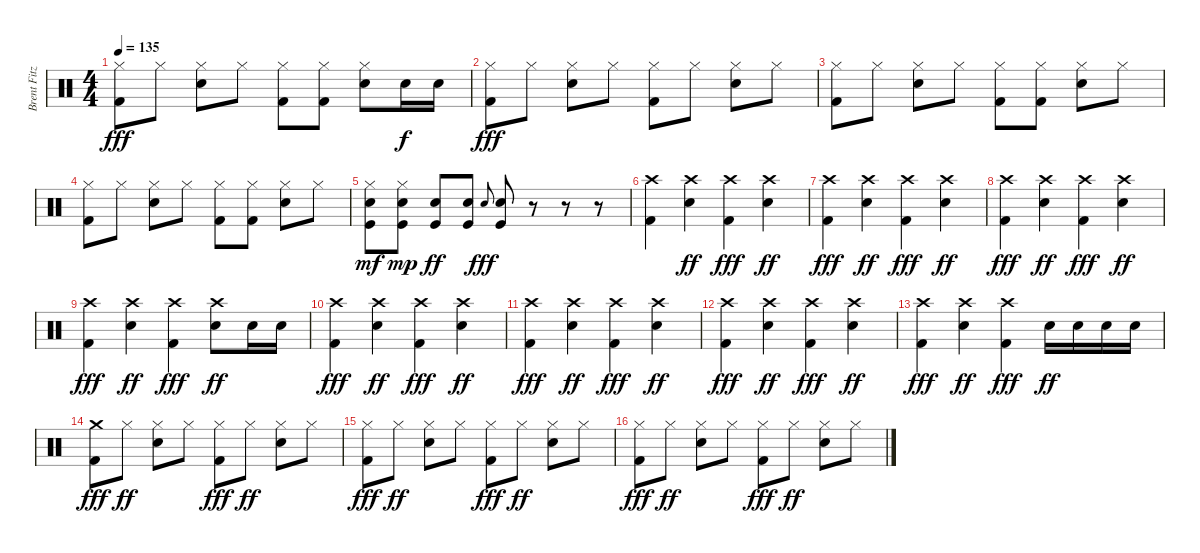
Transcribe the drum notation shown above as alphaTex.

\track ("Brent Fitz" "Brent Fitz") {instrument percussion}
\staff {score}
\articulation defaults
\ts (4 4)
\tempo 135
\clef neutral
\ks c
("Hi-Hat (closed)" "Kick (hit) 2").8{dy fff} "Hi-Hat (closed)".8 ("Hi-Hat (closed)" "Snare (hit) 2").8 "Hi-Hat (closed)".8 ("Hi-Hat (closed)" "Kick (hit) 2").8 ("Hi-Hat (closed)" "Kick (hit) 2").8 ("Hi-Hat (closed)" "Snare (hit) 2").8 "Snare (hit) 2".16{dy f} "Snare (hit) 2".16 |
("Hi-Hat (closed)" "Kick (hit) 2").8{dy fff} "Hi-Hat (closed)".8 ("Hi-Hat (closed)" "Snare (hit) 2").8 "Hi-Hat (closed)".8 ("Hi-Hat (closed)" "Kick (hit) 2").8 "Hi-Hat (closed)".8 ("Hi-Hat (closed)" "Snare (hit) 2").8 "Hi-Hat (closed)".8 |
("Hi-Hat (closed)" "Kick (hit) 2").8 "Hi-Hat (closed)".8 ("Hi-Hat (closed)" "Snare (hit) 2").8 "Hi-Hat (closed)".8 ("Hi-Hat (closed)" "Kick (hit) 2").8 ("Hi-Hat (closed)" "Kick (hit) 2").8 ("Hi-Hat (closed)" "Snare (hit) 2").8 "Hi-Hat (closed)".8 |
("Hi-Hat (closed)" "Kick (hit) 2").8 "Hi-Hat (closed)".8 ("Hi-Hat (closed)" "Snare (hit) 2").8 "Hi-Hat (closed)".8 ("Hi-Hat (closed)" "Kick (hit) 2").8 ("Hi-Hat (closed)" "Kick (hit) 2").8 ("Hi-Hat (closed)" "Snare (hit) 2").8 "Hi-Hat (closed)".8 |
("Hi-Hat (closed)" "Snare (hit) 2" "Kick (hit)").8{dy mf} ("Hi-Hat (closed)" "Snare (hit) 2" "Kick (hit)").8{dy mp} ("Snare (hit) 2" "Kick (hit)").8{dy ff} ("Snare (hit) 2" "Kick (hit)").8 "Snare (hit) 2".8{gr onbeat dy fff} ("Snare (hit) 2" "Kick (hit)").8 r.8 r.8 r.8 |
("Crash high (hit)" "Kick (hit) 2").4 ("Crash high (hit)" "Snare (hit) 2").4{dy ff} ("Crash high (hit)" "Kick (hit) 2").4{dy fff} ("Crash high (hit)" "Snare (hit) 2").4{dy ff} |
("Crash high (hit)" "Kick (hit) 2").4{dy fff} ("Crash high (hit)" "Snare (hit) 2").4{dy ff} ("Crash high (hit)" "Kick (hit) 2").4{dy fff} ("Crash high (hit)" "Snare (hit) 2").4{dy ff} |
("Crash high (hit)" "Kick (hit) 2").4{dy fff} ("Crash high (hit)" "Snare (hit) 2").4{dy ff} ("Crash high (hit)" "Kick (hit) 2").4{dy fff} ("Crash high (hit)" "Snare (hit) 2").4{dy ff} |
("Crash high (hit)" "Kick (hit) 2").4{dy fff} ("Crash high (hit)" "Snare (hit) 2").4{dy ff} ("Crash high (hit)" "Kick (hit) 2").4{dy fff} ("Crash high (hit)" "Snare (hit) 2").8{dy ff} "Snare (hit) 2".16 "Snare (hit) 2".16 |
("Crash high (hit)" "Kick (hit) 2").4{dy fff} ("Crash high (hit)" "Snare (hit) 2").4{dy ff} ("Crash high (hit)" "Kick (hit) 2").4{dy fff} ("Crash high (hit)" "Snare (hit) 2").4{dy ff} |
("Crash high (hit)" "Kick (hit) 2").4{dy fff} ("Crash high (hit)" "Snare (hit) 2").4{dy ff} ("Crash high (hit)" "Kick (hit) 2").4{dy fff} ("Crash high (hit)" "Snare (hit) 2").4{dy ff} |
("Crash high (hit)" "Kick (hit) 2").4{dy fff} ("Crash high (hit)" "Snare (hit) 2").4{dy ff} ("Crash high (hit)" "Kick (hit) 2").4{dy fff} ("Crash high (hit)" "Snare (hit) 2").4{dy ff} |
("Crash high (hit)" "Kick (hit) 2").4{dy fff} ("Crash high (hit)" "Snare (hit) 2").4{dy ff} ("Crash high (hit)" "Kick (hit) 2").4{dy fff} "Snare (hit) 2".16{dy ff} "Snare (hit) 2".16 "Snare (hit) 2".16 "Snare (hit) 2".16 |
("Crash medium (hit)" "Kick (hit) 2").8{dy fff} "Hi-Hat (closed)".8{dy ff} ("Hi-Hat (closed)" "Snare (hit) 2").8 "Hi-Hat (closed)".8 ("Hi-Hat (closed)" "Kick (hit) 2").8{dy fff} "Hi-Hat (closed)".8{dy ff} ("Hi-Hat (closed)" "Snare (hit) 2").8 "Hi-Hat (closed)".8 |
("Hi-Hat (closed)" "Kick (hit) 2").8{dy fff} "Hi-Hat (closed)".8{dy ff} ("Hi-Hat (closed)" "Snare (hit) 2").8 "Hi-Hat (closed)".8 ("Hi-Hat (closed)" "Kick (hit) 2").8{dy fff} "Hi-Hat (closed)".8{dy ff} ("Hi-Hat (closed)" "Snare (hit) 2").8 "Hi-Hat (closed)".8 |
("Hi-Hat (closed)" "Kick (hit) 2").8{dy fff} "Hi-Hat (closed)".8{dy ff} ("Hi-Hat (closed)" "Snare (hit) 2").8 "Hi-Hat (closed)".8 ("Hi-Hat (closed)" "Kick (hit) 2").8{dy fff} "Hi-Hat (closed)".8{dy ff} ("Hi-Hat (closed)" "Snare (hit) 2").8 "Hi-Hat (closed)".8
